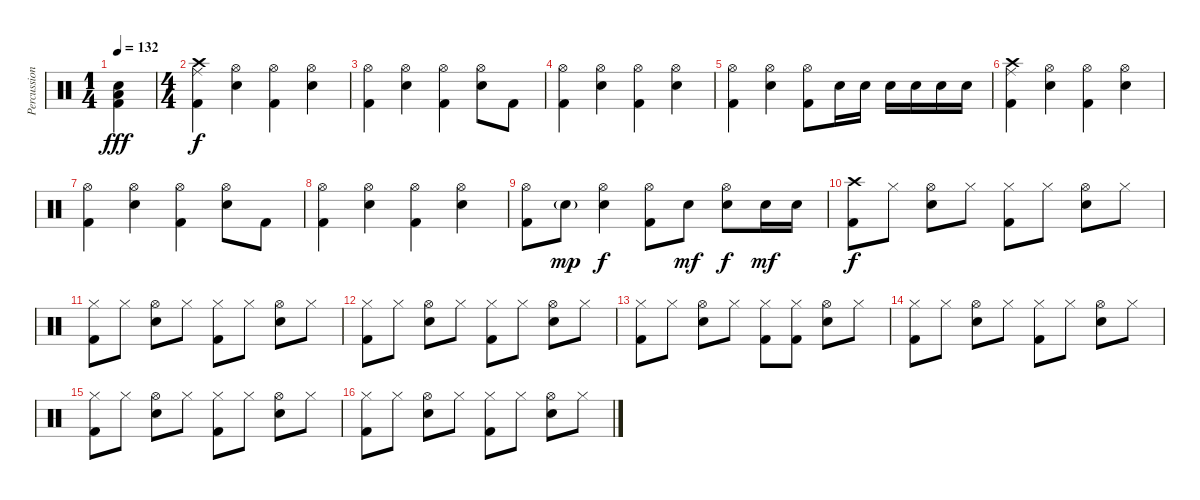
\track ("Percussion" "Percussion") {instrument percussion}
\staff {score}
\articulation defaults
\ts (1 4)
\tempo 132
\clef neutral
\ks c
("Low Tom (hit)" "Kick (hit) 2" "Snare (hit) 2").4{dy fff} |
\ts (4 4)
("Ride (middle)" "Crash high (hit)" "Kick (hit) 2").4{dy f} ("Hi-Hat (open)" "Snare (hit) 2").4 ("Hi-Hat (open)" "Kick (hit) 2").4 ("Hi-Hat (open)" "Snare (hit) 2").4 |
("Hi-Hat (open)" "Kick (hit) 2").4 ("Hi-Hat (open)" "Snare (hit) 2").4 ("Hi-Hat (open)" "Kick (hit) 2").4 ("Hi-Hat (open)" "Snare (hit) 2").8 "Kick (hit) 2".8 |
("Hi-Hat (open)" "Kick (hit) 2").4 ("Hi-Hat (open)" "Snare (hit) 2").4 ("Hi-Hat (open)" "Kick (hit) 2").4 ("Hi-Hat (open)" "Snare (hit) 2").4 |
("Hi-Hat (open)" "Kick (hit) 2").4 ("Hi-Hat (open)" "Snare (hit) 2").4 ("Hi-Hat (open)" "Kick (hit) 2").8 "Snare (hit) 2".16 "Snare (hit) 2".16 "Snare (hit) 2".16 "Snare (hit) 2".16 "Snare (hit) 2".16 "Snare (hit) 2".16 |
("Ride (middle)" "Crash high (hit)" "Kick (hit) 2").4 ("Hi-Hat (open)" "Snare (hit) 2").4 ("Hi-Hat (open)" "Kick (hit) 2").4 ("Hi-Hat (open)" "Snare (hit) 2").4 |
("Hi-Hat (open)" "Kick (hit) 2").4 ("Hi-Hat (open)" "Snare (hit) 2").4 ("Hi-Hat (open)" "Kick (hit) 2").4 ("Hi-Hat (open)" "Snare (hit) 2").8 "Kick (hit) 2".8 |
("Hi-Hat (open)" "Kick (hit) 2").4 ("Hi-Hat (open)" "Snare (hit) 2").4 ("Hi-Hat (open)" "Kick (hit) 2").4 ("Hi-Hat (open)" "Snare (hit) 2").4 |
("Hi-Hat (open)" "Kick (hit) 2").8 "Snare (hit) 2"{g}.8{dy mp} ("Snare (hit) 2" "Hi-Hat (open)").4{dy f} ("Hi-Hat (open)" "Kick (hit) 2").8 "Snare (hit) 2".8{dy mf} ("Snare (hit) 2" "Hi-Hat (open)").8{dy f} "Snare (hit) 2".16{dy mf} "Snare (hit) 2".16 |
("Crash high (hit)" "Kick (hit) 2").8{dy f} "Hi-Hat (closed)".8 ("Hi-Hat (open)" "Snare (hit) 2").8 "Hi-Hat (closed)".8 ("Hi-Hat (closed)" "Kick (hit) 2").8 "Hi-Hat (closed)".8 ("Hi-Hat (open)" "Snare (hit) 2").8 "Hi-Hat (closed)".8 |
("Hi-Hat (closed)" "Kick (hit) 2").8 "Hi-Hat (closed)".8 ("Hi-Hat (open)" "Snare (hit) 2").8 "Hi-Hat (closed)".8 ("Hi-Hat (closed)" "Kick (hit) 2").8 "Hi-Hat (closed)".8 ("Hi-Hat (open)" "Snare (hit) 2").8 "Hi-Hat (closed)".8 |
("Hi-Hat (closed)" "Kick (hit) 2").8 "Hi-Hat (closed)".8 ("Hi-Hat (open)" "Snare (hit) 2").8 "Hi-Hat (closed)".8 ("Hi-Hat (closed)" "Kick (hit) 2").8 "Hi-Hat (closed)".8 ("Hi-Hat (open)" "Snare (hit) 2").8 "Hi-Hat (closed)".8 |
("Hi-Hat (closed)" "Kick (hit) 2").8 "Hi-Hat (closed)".8 ("Hi-Hat (open)" "Snare (hit) 2").8 "Hi-Hat (closed)".8 ("Hi-Hat (closed)" "Kick (hit) 2").8 ("Hi-Hat (closed)" "Kick (hit) 2").8 ("Hi-Hat (open)" "Snare (hit) 2").8 "Hi-Hat (closed)".8 |
("Hi-Hat (closed)" "Kick (hit) 2").8 "Hi-Hat (closed)".8 ("Hi-Hat (open)" "Snare (hit) 2").8 "Hi-Hat (closed)".8 ("Hi-Hat (closed)" "Kick (hit) 2").8 "Hi-Hat (closed)".8 ("Hi-Hat (open)" "Snare (hit) 2").8 "Hi-Hat (closed)".8 |
("Hi-Hat (closed)" "Kick (hit) 2").8 "Hi-Hat (closed)".8 ("Hi-Hat (open)" "Snare (hit) 2").8 "Hi-Hat (closed)".8 ("Hi-Hat (closed)" "Kick (hit) 2").8 "Hi-Hat (closed)".8 ("Hi-Hat (open)" "Snare (hit) 2").8 "Hi-Hat (closed)".8 |
("Hi-Hat (closed)" "Kick (hit) 2").8 "Hi-Hat (closed)".8 ("Hi-Hat (open)" "Snare (hit) 2").8 "Hi-Hat (closed)".8 ("Hi-Hat (closed)" "Kick (hit) 2").8 "Hi-Hat (closed)".8 ("Hi-Hat (open)" "Snare (hit) 2").8 "Hi-Hat (closed)".8
